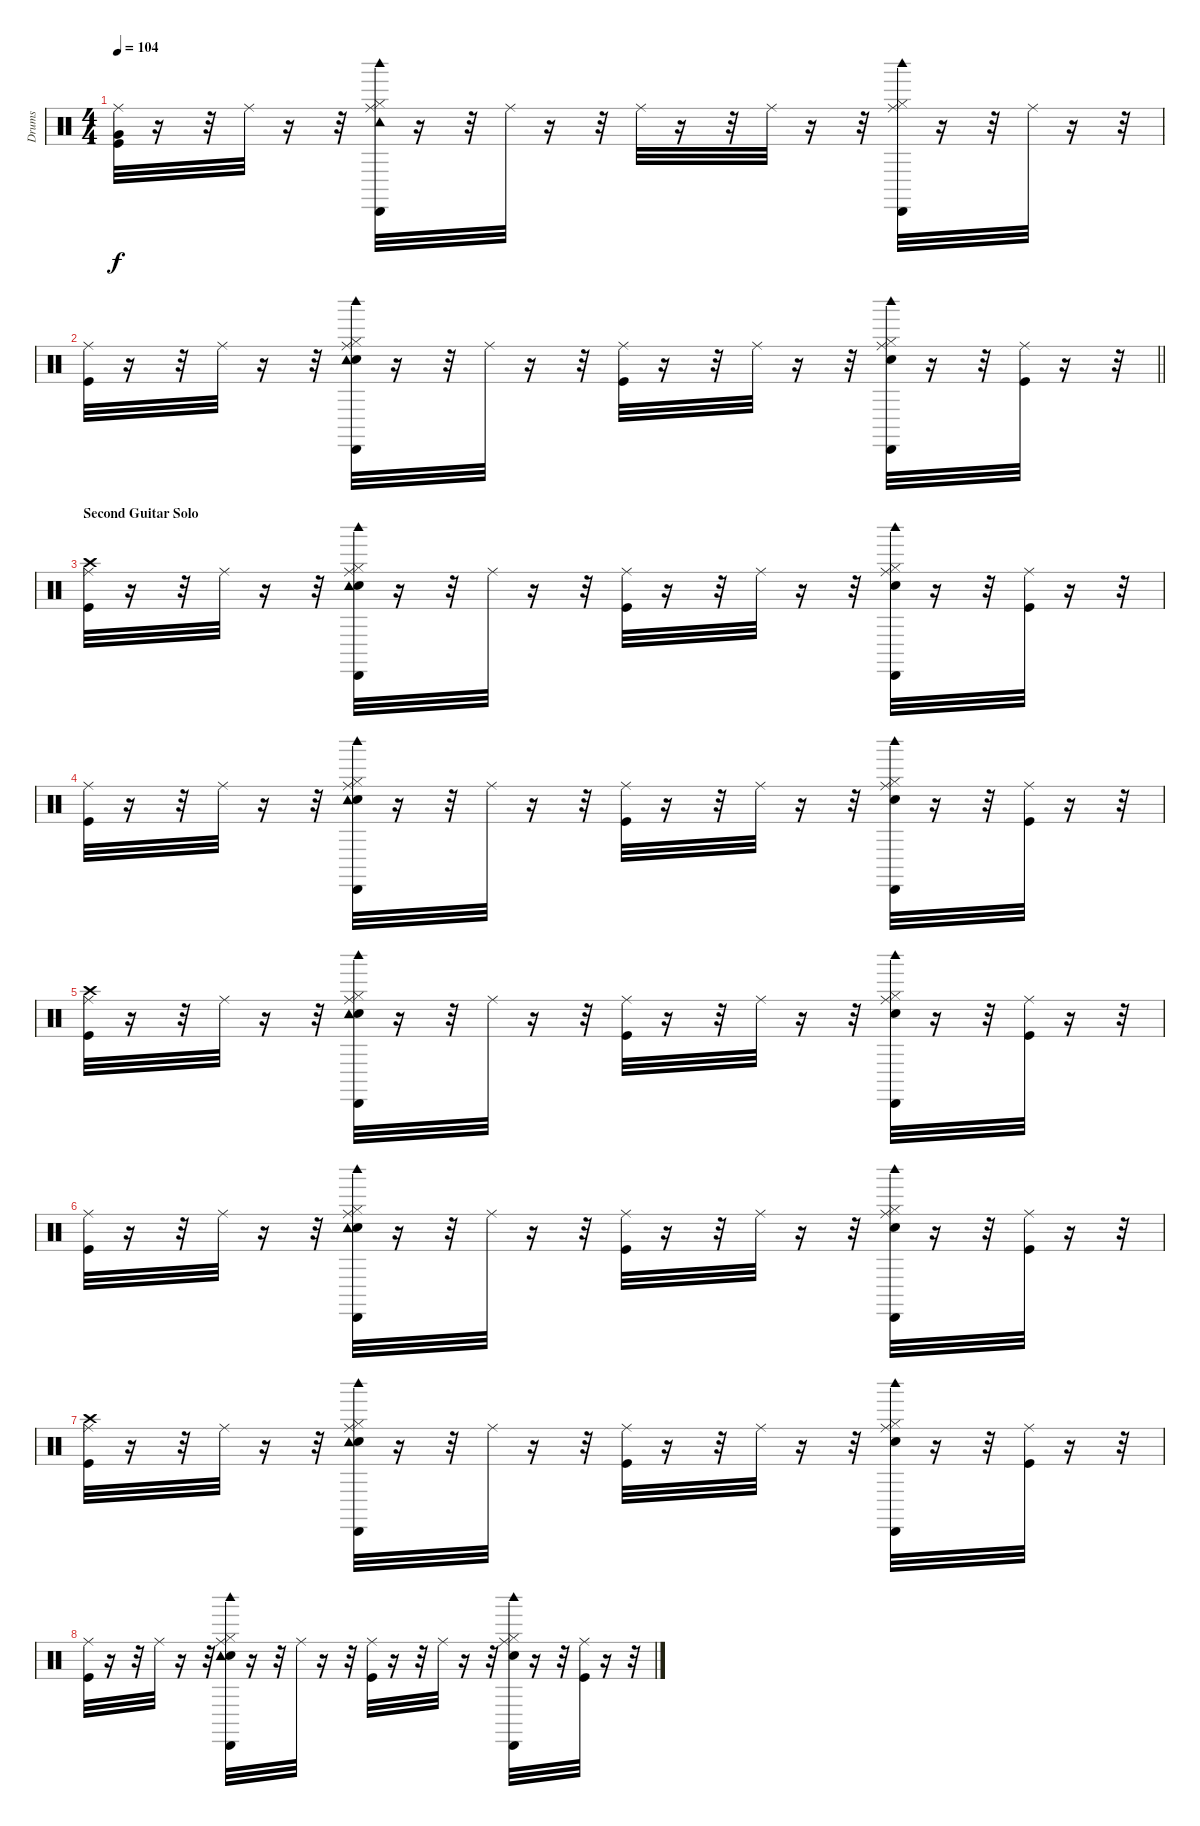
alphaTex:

\track ("Drums" "Drums") {instrument percussion}
\staff {score}
\articulation defaults
\ts (4 4)
\tempo 104
\clef neutral
\ks c
("Kick (hit)" "Very Low Tom (hit)" "Ride (middle)").32{dy f} r.16 r.32 "Ride (middle)".32 r.16 r.32 ("Hi-Hat (closed)" "Ride (middle)" "Tambourine (hit)" "Cabasa (hit)" "Woodblock high (hit)").32 r.16 r.32 "Ride (middle)".32 r.16 r.32 "Ride (middle)".32 r.16 r.32 "Ride (middle)".32 r.16 r.32 ("Hi-Hat (closed)" "Ride (middle)" "Cabasa (hit)" "Woodblock high (hit)").32 r.16 r.32 "Ride (middle)".32 r.16 r.32 |
\barLineRight lightlight
("Kick (hit)" "Ride (middle)").32 r.16 r.32 "Ride (middle)".32 r.16 r.32 ("Snare (hit) 2" "Hi-Hat (closed)" "Ride (middle)" "Tambourine (hit)" "Cabasa (hit)" "Woodblock high (hit)").32 r.16 r.32 "Ride (middle)".32 r.16 r.32 ("Kick (hit)" "Ride (middle)").32 r.16 r.32 "Ride (middle)".32 r.16 r.32 ("Snare (hit) 2" "Hi-Hat (closed)" "Ride (middle)" "Cabasa (hit)" "Woodblock high (hit)").32 r.16 r.32 ("Kick (hit)" "Ride (middle)").32 r.16 r.32 |
\section ("" "Second Guitar Solo")
("Kick (hit)" "Crash high (hit)" "Ride (middle)").32 r.16 r.32 "Ride (middle)".32 r.16 r.32 ("Snare (hit) 2" "Hi-Hat (closed)" "Ride (middle)" "Tambourine (hit)" "Cabasa (hit)" "Woodblock high (hit)").32 r.16 r.32 "Ride (middle)".32 r.16 r.32 ("Kick (hit)" "Ride (middle)").32 r.16 r.32 "Ride (middle)".32 r.16 r.32 ("Snare (hit) 2" "Hi-Hat (closed)" "Ride (middle)" "Cabasa (hit)" "Woodblock high (hit)").32 r.16 r.32 ("Kick (hit)" "Ride (middle)").32 r.16 r.32 |
("Kick (hit)" "Ride (middle)").32 r.16 r.32 "Ride (middle)".32 r.16 r.32 ("Snare (hit) 2" "Hi-Hat (closed)" "Ride (middle)" "Tambourine (hit)" "Cabasa (hit)" "Woodblock high (hit)").32 r.16 r.32 "Ride (middle)".32 r.16 r.32 ("Kick (hit)" "Ride (middle)").32 r.16 r.32 "Ride (middle)".32 r.16 r.32 ("Snare (hit) 2" "Hi-Hat (closed)" "Ride (middle)" "Cabasa (hit)" "Woodblock high (hit)").32 r.16 r.32 ("Kick (hit)" "Ride (middle)").32 r.16 r.32 |
("Kick (hit)" "Crash high (hit)" "Ride (middle)").32 r.16 r.32 "Ride (middle)".32 r.16 r.32 ("Snare (hit) 2" "Hi-Hat (closed)" "Ride (middle)" "Tambourine (hit)" "Cabasa (hit)" "Woodblock high (hit)").32 r.16 r.32 "Ride (middle)".32 r.16 r.32 ("Kick (hit)" "Ride (middle)").32 r.16 r.32 "Ride (middle)".32 r.16 r.32 ("Snare (hit) 2" "Hi-Hat (closed)" "Ride (middle)" "Cabasa (hit)" "Woodblock high (hit)").32 r.16 r.32 ("Kick (hit)" "Ride (middle)").32 r.16 r.32 |
("Kick (hit)" "Ride (middle)").32 r.16 r.32 "Ride (middle)".32 r.16 r.32 ("Snare (hit) 2" "Hi-Hat (closed)" "Ride (middle)" "Tambourine (hit)" "Cabasa (hit)" "Woodblock high (hit)").32 r.16 r.32 "Ride (middle)".32 r.16 r.32 ("Kick (hit)" "Ride (middle)").32 r.16 r.32 "Ride (middle)".32 r.16 r.32 ("Snare (hit) 2" "Hi-Hat (closed)" "Ride (middle)" "Cabasa (hit)" "Woodblock high (hit)").32 r.16 r.32 ("Kick (hit)" "Ride (middle)").32 r.16 r.32 |
("Kick (hit)" "Crash high (hit)" "Ride (middle)").32 r.16 r.32 "Ride (middle)".32 r.16 r.32 ("Snare (hit) 2" "Hi-Hat (closed)" "Ride (middle)" "Tambourine (hit)" "Cabasa (hit)" "Woodblock high (hit)").32 r.16 r.32 "Ride (middle)".32 r.16 r.32 ("Kick (hit)" "Ride (middle)").32 r.16 r.32 "Ride (middle)".32 r.16 r.32 ("Snare (hit) 2" "Hi-Hat (closed)" "Ride (middle)" "Cabasa (hit)" "Woodblock high (hit)").32 r.16 r.32 ("Kick (hit)" "Ride (middle)").32 r.16 r.32 |
("Kick (hit)" "Ride (middle)").32 r.16 r.32 "Ride (middle)".32 r.16 r.32 ("Snare (hit) 2" "Hi-Hat (closed)" "Ride (middle)" "Tambourine (hit)" "Cabasa (hit)" "Woodblock high (hit)").32 r.16 r.32 "Ride (middle)".32 r.16 r.32 ("Kick (hit)" "Ride (middle)").32 r.16 r.32 "Ride (middle)".32 r.16 r.32 ("Snare (hit) 2" "Hi-Hat (closed)" "Ride (middle)" "Cabasa (hit)" "Woodblock high (hit)").32 r.16 r.32 ("Kick (hit)" "Ride (middle)").32 r.16 r.32
